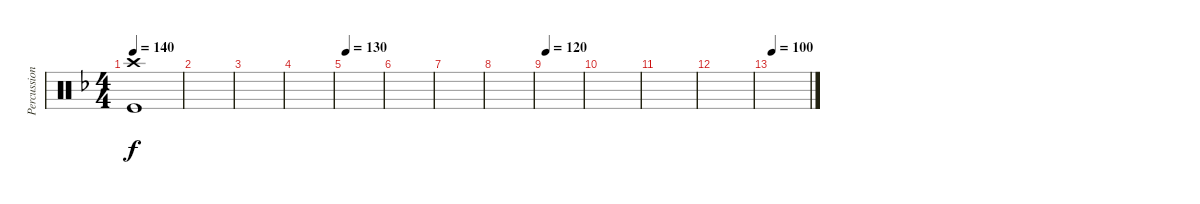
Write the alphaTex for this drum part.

\track ("Percussion" "Percussion") {instrument percussion}
\staff {score}
\articulation defaults
\ts (4 4)
\tempo 140
\clef neutral
\ks dminor
("Crash high (hit)" "Kick (hit)").1{dy f} |
|
|
|
\tempo 130
|
|
|
|
\tempo 120
|
|
|
|
\tempo 100
